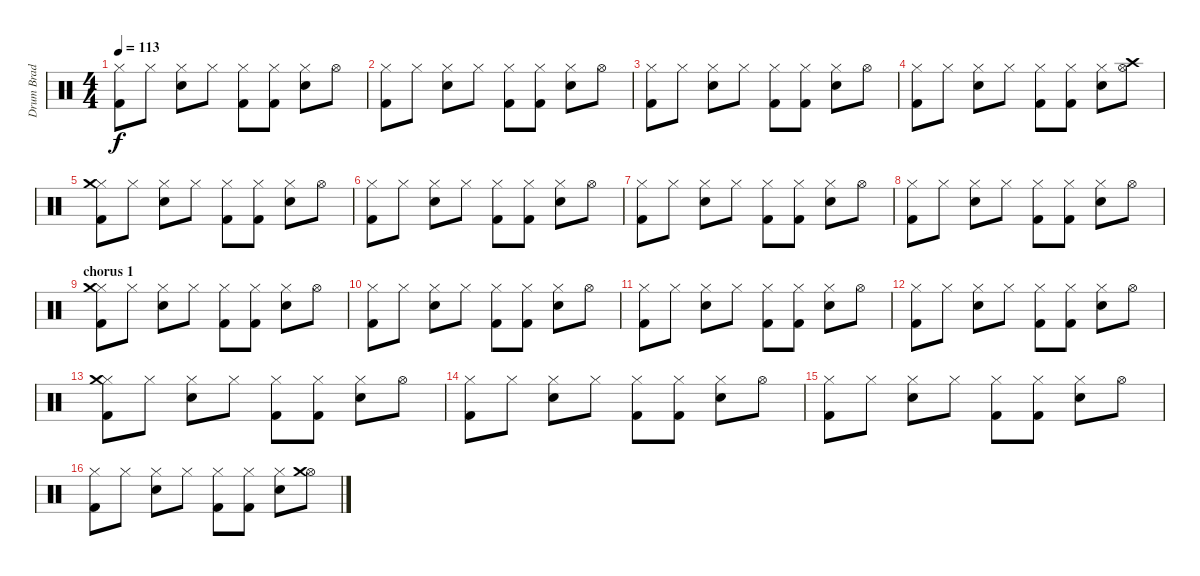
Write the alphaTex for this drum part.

\track ("Drum Brad Wilk" "Drum Brad ") {instrument percussion}
\staff {score}
\articulation defaults
\ts (4 4)
\tempo 113
\clef neutral
\ks c
("Hi-Hat (closed)" "Kick (hit) 2").8{dy f} "Hi-Hat (closed)".8 ("Hi-Hat (closed)" "Snare (hit) 2").8 "Hi-Hat (closed)".8 ("Hi-Hat (closed)" "Kick (hit) 2").8 ("Hi-Hat (closed)" "Kick (hit) 2").8 ("Hi-Hat (closed)" "Snare (hit) 2").8 "Hi-Hat (open)".8 |
("Hi-Hat (closed)" "Kick (hit) 2").8 "Hi-Hat (closed)".8 ("Hi-Hat (closed)" "Snare (hit) 2").8 "Hi-Hat (closed)".8 ("Hi-Hat (closed)" "Kick (hit) 2").8 ("Hi-Hat (closed)" "Kick (hit) 2").8 ("Hi-Hat (closed)" "Snare (hit) 2").8 "Hi-Hat (open)".8 |
("Hi-Hat (closed)" "Kick (hit) 2").8 "Hi-Hat (closed)".8 ("Hi-Hat (closed)" "Snare (hit) 2").8 "Hi-Hat (closed)".8 ("Hi-Hat (closed)" "Kick (hit) 2").8 ("Hi-Hat (closed)" "Kick (hit) 2").8 ("Hi-Hat (closed)" "Snare (hit) 2").8 "Hi-Hat (open)".8 |
("Hi-Hat (closed)" "Kick (hit) 2").8 "Hi-Hat (closed)".8 ("Hi-Hat (closed)" "Snare (hit) 2").8 "Hi-Hat (closed)".8 ("Hi-Hat (closed)" "Kick (hit) 2").8 ("Hi-Hat (closed)" "Kick (hit) 2").8 ("Hi-Hat (closed)" "Snare (hit) 2").8 ("Hi-Hat (open)" "Crash high (hit)").8 |
("Hi-Hat (closed)" "Crash medium (hit)" "Kick (hit) 2").8 "Hi-Hat (closed)".8 ("Hi-Hat (closed)" "Snare (hit) 2").8 "Hi-Hat (closed)".8 ("Hi-Hat (closed)" "Kick (hit) 2").8 ("Hi-Hat (closed)" "Kick (hit) 2").8 ("Hi-Hat (closed)" "Snare (hit) 2").8 "Hi-Hat (open)".8 |
("Hi-Hat (closed)" "Kick (hit) 2").8 "Hi-Hat (closed)".8 ("Hi-Hat (closed)" "Snare (hit) 2").8 "Hi-Hat (closed)".8 ("Hi-Hat (closed)" "Kick (hit) 2").8 ("Hi-Hat (closed)" "Kick (hit) 2").8 ("Hi-Hat (closed)" "Snare (hit) 2").8 "Hi-Hat (open)".8 |
("Hi-Hat (closed)" "Kick (hit) 2").8 "Hi-Hat (closed)".8 ("Hi-Hat (closed)" "Snare (hit) 2").8 "Hi-Hat (closed)".8 ("Hi-Hat (closed)" "Kick (hit) 2").8 ("Hi-Hat (closed)" "Kick (hit) 2").8 ("Hi-Hat (closed)" "Snare (hit) 2").8 "Hi-Hat (open)".8 |
("Hi-Hat (closed)" "Kick (hit) 2").8 "Hi-Hat (closed)".8 ("Hi-Hat (closed)" "Snare (hit) 2").8 "Hi-Hat (closed)".8 ("Hi-Hat (closed)" "Kick (hit) 2").8 ("Hi-Hat (closed)" "Kick (hit) 2").8 ("Hi-Hat (closed)" "Snare (hit) 2").8 "Hi-Hat (open)".8 |
\section ("" "chorus 1")
("Hi-Hat (closed)" "Crash medium (hit)" "Kick (hit) 2").8 "Hi-Hat (closed)".8 ("Hi-Hat (closed)" "Snare (hit) 2").8 "Hi-Hat (closed)".8 ("Hi-Hat (closed)" "Kick (hit) 2").8 ("Hi-Hat (closed)" "Kick (hit) 2").8 ("Hi-Hat (closed)" "Snare (hit) 2").8 "Hi-Hat (open)".8 |
("Hi-Hat (closed)" "Kick (hit) 2").8 "Hi-Hat (closed)".8 ("Hi-Hat (closed)" "Snare (hit) 2").8 "Hi-Hat (closed)".8 ("Hi-Hat (closed)" "Kick (hit) 2").8 ("Hi-Hat (closed)" "Kick (hit) 2").8 ("Hi-Hat (closed)" "Snare (hit) 2").8 "Hi-Hat (open)".8 |
("Hi-Hat (closed)" "Kick (hit) 2").8 "Hi-Hat (closed)".8 ("Hi-Hat (closed)" "Snare (hit) 2").8 "Hi-Hat (closed)".8 ("Hi-Hat (closed)" "Kick (hit) 2").8 ("Hi-Hat (closed)" "Kick (hit) 2").8 ("Hi-Hat (closed)" "Snare (hit) 2").8 "Hi-Hat (open)".8 |
("Hi-Hat (closed)" "Kick (hit) 2").8 "Hi-Hat (closed)".8 ("Hi-Hat (closed)" "Snare (hit) 2").8 "Hi-Hat (closed)".8 ("Hi-Hat (closed)" "Kick (hit) 2").8 ("Hi-Hat (closed)" "Kick (hit) 2").8 ("Hi-Hat (closed)" "Snare (hit) 2").8 "Hi-Hat (open)".8 |
("Hi-Hat (closed)" "Crash medium (hit)" "Kick (hit) 2").8 "Hi-Hat (closed)".8 ("Hi-Hat (closed)" "Snare (hit) 2").8 "Hi-Hat (closed)".8 ("Hi-Hat (closed)" "Kick (hit) 2").8 ("Hi-Hat (closed)" "Kick (hit) 2").8 ("Hi-Hat (closed)" "Snare (hit) 2").8 "Hi-Hat (open)".8 |
("Hi-Hat (closed)" "Kick (hit) 2").8 "Hi-Hat (closed)".8 ("Hi-Hat (closed)" "Snare (hit) 2").8 "Hi-Hat (closed)".8 ("Hi-Hat (closed)" "Kick (hit) 2").8 ("Hi-Hat (closed)" "Kick (hit) 2").8 ("Hi-Hat (closed)" "Snare (hit) 2").8 "Hi-Hat (open)".8 |
("Hi-Hat (closed)" "Kick (hit) 2").8 "Hi-Hat (closed)".8 ("Hi-Hat (closed)" "Snare (hit) 2").8 "Hi-Hat (closed)".8 ("Hi-Hat (closed)" "Kick (hit) 2").8 ("Hi-Hat (closed)" "Kick (hit) 2").8 ("Hi-Hat (closed)" "Snare (hit) 2").8 "Hi-Hat (open)".8 |
("Hi-Hat (closed)" "Kick (hit) 2").8 "Hi-Hat (closed)".8 ("Hi-Hat (closed)" "Snare (hit) 2").8 "Hi-Hat (closed)".8 ("Hi-Hat (closed)" "Kick (hit) 2").8 ("Hi-Hat (closed)" "Kick (hit) 2").8 ("Hi-Hat (closed)" "Snare (hit) 2").8 ("Hi-Hat (open)" "Crash medium (hit)").8
